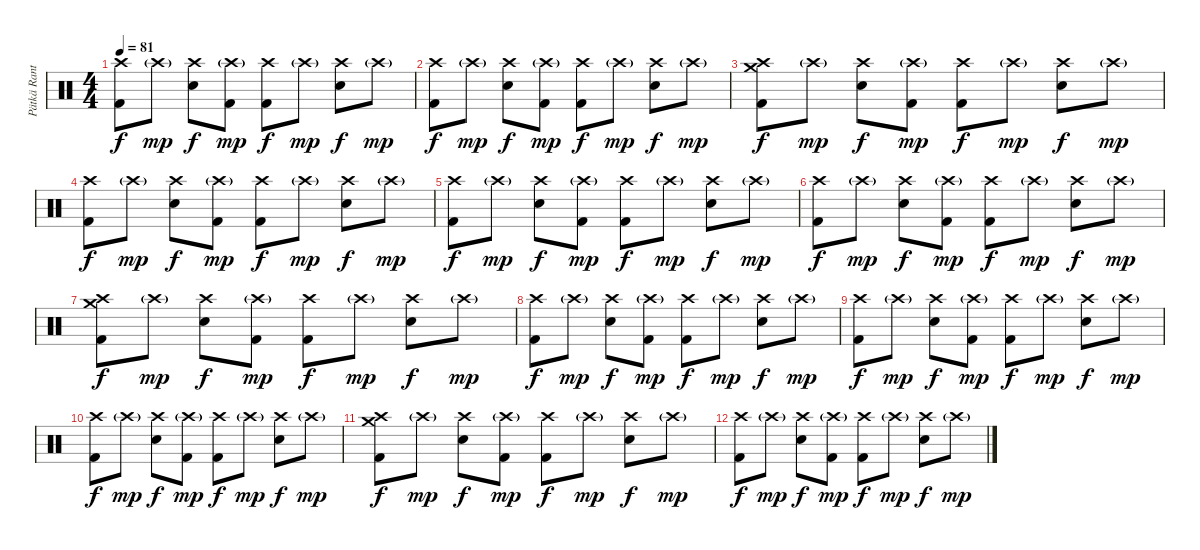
\track ("Pätkä Rantala (Drums)" "Pätkä Rant") {instrument percussion}
\staff {score}
\articulation defaults
\ts (4 4)
\tempo 81
\clef neutral
\ks c
("Crash high (hit)" "Kick (hit) 2").8{dy f} "Crash high (hit)"{g}.8{dy mp} ("Crash high (hit)" "Snare (hit) 2").8{dy f} ("Crash high (hit)"{g} "Kick (hit) 2").8{dy mp} ("Crash high (hit)" "Kick (hit) 2").8{dy f} "Crash high (hit)"{g}.8{dy mp} ("Crash high (hit)" "Snare (hit) 2").8{dy f} "Crash high (hit)"{g}.8{dy mp} |
("Crash high (hit)" "Kick (hit) 2").8{dy f} "Crash high (hit)"{g}.8{dy mp} ("Crash high (hit)" "Snare (hit) 2").8{dy f} ("Crash high (hit)"{g} "Kick (hit) 2").8{dy mp} ("Crash high (hit)" "Kick (hit) 2").8{dy f} "Crash high (hit)"{g}.8{dy mp} ("Crash high (hit)" "Snare (hit) 2").8{dy f} "Crash high (hit)"{g}.8{dy mp} |
("Crash medium (hit)" "Crash high (hit)" "Kick (hit) 2").8{dy f} "Crash high (hit)"{g}.8{dy mp} ("Crash high (hit)" "Snare (hit) 2").8{dy f} ("Crash high (hit)"{g} "Kick (hit) 2").8{dy mp} ("Crash high (hit)" "Kick (hit) 2").8{dy f} "Crash high (hit)"{g}.8{dy mp} ("Crash high (hit)" "Snare (hit) 2").8{dy f} "Crash high (hit)"{g}.8{dy mp} |
("Crash high (hit)" "Kick (hit) 2").8{dy f} "Crash high (hit)"{g}.8{dy mp} ("Crash high (hit)" "Snare (hit) 2").8{dy f} ("Crash high (hit)"{g} "Kick (hit) 2").8{dy mp} ("Crash high (hit)" "Kick (hit) 2").8{dy f} "Crash high (hit)"{g}.8{dy mp} ("Crash high (hit)" "Snare (hit) 2").8{dy f} "Crash high (hit)"{g}.8{dy mp} |
("Crash high (hit)" "Kick (hit) 2").8{dy f} "Crash high (hit)"{g}.8{dy mp} ("Crash high (hit)" "Snare (hit) 2").8{dy f} ("Crash high (hit)"{g} "Kick (hit) 2").8{dy mp} ("Crash high (hit)" "Kick (hit) 2").8{dy f volume 7} "Crash high (hit)"{g}.8{dy mp} ("Crash high (hit)" "Snare (hit) 2").8{dy f} "Crash high (hit)"{g}.8{dy mp} |
("Crash high (hit)" "Kick (hit) 2").8{dy f} "Crash high (hit)"{g}.8{dy mp} ("Crash high (hit)" "Snare (hit) 2").8{dy f} ("Crash high (hit)"{g} "Kick (hit) 2").8{dy mp} ("Crash high (hit)" "Kick (hit) 2").8{dy f} "Crash high (hit)"{g}.8{dy mp} ("Crash high (hit)" "Snare (hit) 2").8{dy f} "Crash high (hit)"{g}.8{dy mp} |
("Crash medium (hit)" "Crash high (hit)" "Kick (hit) 2").8{dy f} "Crash high (hit)"{g}.8{dy mp} ("Crash high (hit)" "Snare (hit) 2").8{dy f} ("Crash high (hit)"{g} "Kick (hit) 2").8{dy mp} ("Crash high (hit)" "Kick (hit) 2").8{dy f} "Crash high (hit)"{g}.8{dy mp} ("Crash high (hit)" "Snare (hit) 2").8{dy f} "Crash high (hit)"{g}.8{dy mp} |
("Crash high (hit)" "Kick (hit) 2").8{dy f} "Crash high (hit)"{g}.8{dy mp} ("Crash high (hit)" "Snare (hit) 2").8{dy f} ("Crash high (hit)"{g} "Kick (hit) 2").8{dy mp} ("Crash high (hit)" "Kick (hit) 2").8{dy f} "Crash high (hit)"{g}.8{dy mp} ("Crash high (hit)" "Snare (hit) 2").8{dy f} "Crash high (hit)"{g}.8{dy mp} |
("Crash high (hit)" "Kick (hit) 2").8{dy f volume 0} "Crash high (hit)"{g}.8{dy mp} ("Crash high (hit)" "Snare (hit) 2").8{dy f} ("Crash high (hit)"{g} "Kick (hit) 2").8{dy mp} ("Crash high (hit)" "Kick (hit) 2").8{dy f} "Crash high (hit)"{g}.8{dy mp} ("Crash high (hit)" "Snare (hit) 2").8{dy f} "Crash high (hit)"{g}.8{dy mp} |
("Crash high (hit)" "Kick (hit) 2").8{dy f} "Crash high (hit)"{g}.8{dy mp} ("Crash high (hit)" "Snare (hit) 2").8{dy f} ("Crash high (hit)"{g} "Kick (hit) 2").8{dy mp} ("Crash high (hit)" "Kick (hit) 2").8{dy f} "Crash high (hit)"{g}.8{dy mp} ("Crash high (hit)" "Snare (hit) 2").8{dy f} "Crash high (hit)"{g}.8{dy mp} |
("Crash medium (hit)" "Crash high (hit)" "Kick (hit) 2").8{dy f} "Crash high (hit)"{g}.8{dy mp} ("Crash high (hit)" "Snare (hit) 2").8{dy f} ("Crash high (hit)"{g} "Kick (hit) 2").8{dy mp} ("Crash high (hit)" "Kick (hit) 2").8{dy f} "Crash high (hit)"{g}.8{dy mp} ("Crash high (hit)" "Snare (hit) 2").8{dy f} "Crash high (hit)"{g}.8{dy mp} |
("Crash high (hit)" "Kick (hit) 2").8{dy f} "Crash high (hit)"{g}.8{dy mp} ("Crash high (hit)" "Snare (hit) 2").8{dy f} ("Crash high (hit)"{g} "Kick (hit) 2").8{dy mp} ("Crash high (hit)" "Kick (hit) 2").8{dy f} "Crash high (hit)"{g}.8{dy mp} ("Crash high (hit)" "Snare (hit) 2").8{dy f} "Crash high (hit)"{g}.8{dy mp}
